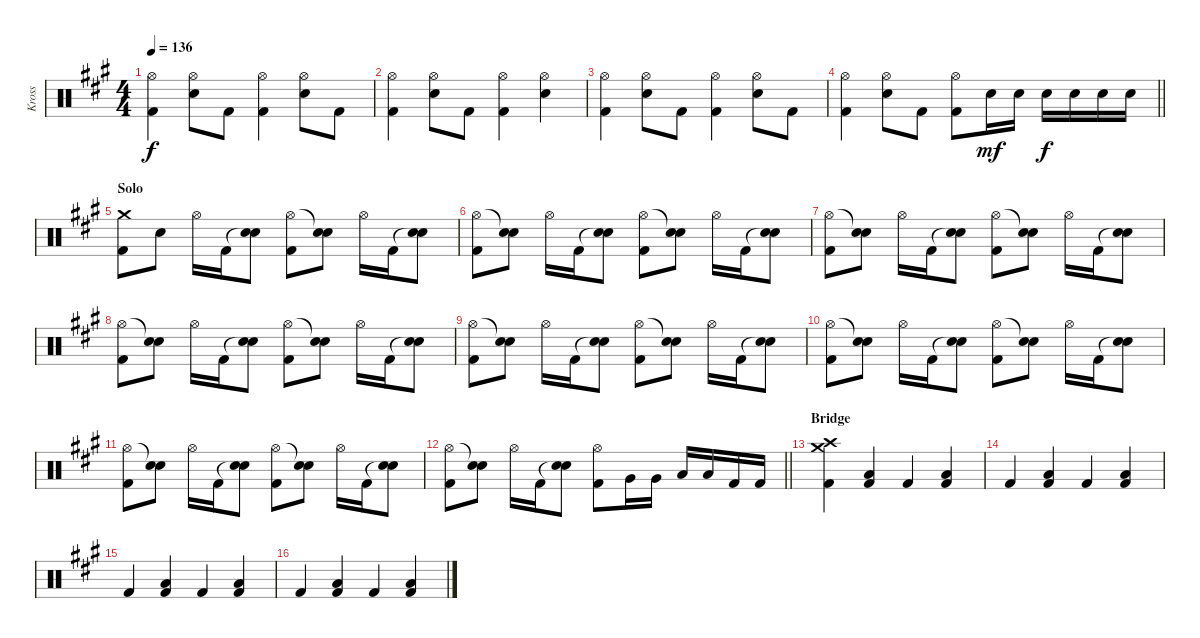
\track ("Kross" "Kross") {instrument percussion}
\staff {score}
\articulation defaults
\ts (4 4)
\tempo 136
\clef neutral
\ks a
("Hi-Hat (open)" "Kick (hit) 2").4{dy f} ("Hi-Hat (open)" "Electric Snare (hit)").8 "Kick (hit) 2".8 ("Hi-Hat (open)" "Kick (hit) 2").4 ("Hi-Hat (open)" "Electric Snare (hit)").8 "Kick (hit) 2".8 |
("Hi-Hat (open)" "Kick (hit) 2").4 ("Hi-Hat (open)" "Electric Snare (hit)").8 "Kick (hit) 2".8 ("Hi-Hat (open)" "Kick (hit) 2").4 ("Hi-Hat (open)" "Electric Snare (hit)").4 |
("Hi-Hat (open)" "Kick (hit) 2").4 ("Hi-Hat (open)" "Electric Snare (hit)").8 "Kick (hit) 2".8 ("Hi-Hat (open)" "Kick (hit) 2").4 ("Hi-Hat (open)" "Electric Snare (hit)").8 "Kick (hit) 2".8 |
\barLineRight lightlight
("Hi-Hat (open)" "Kick (hit) 2").4 ("Hi-Hat (open)" "Electric Snare (hit)").8 "Kick (hit) 2".8 ("Hi-Hat (open)" "Kick (hit) 2").8 "Electric Snare (hit)".16{dy mf} "Electric Snare (hit)".16 "Electric Snare (hit)".16{dy f} "Electric Snare (hit)".16 "Electric Snare (hit)".16 "Electric Snare (hit)".16 |
\section ("" "Solo")
("Crash medium (hit)" "Kick (hit) 2").8 "Electric Snare (hit)".8 "Hi-Hat (open)".16 "Kick (hit) 2".16 ("Snare (hit)"{t} "Electric Snare (hit)").8 ("Hi-Hat (open)" "Kick (hit) 2").8 ("Snare (hit)"{t} "Electric Snare (hit)").8 "Hi-Hat (open)".16 "Kick (hit) 2".16 ("Snare (hit)"{t} "Electric Snare (hit)").8 |
("Hi-Hat (open)" "Kick (hit) 2").8 ("Snare (hit)"{t} "Electric Snare (hit)").8 "Hi-Hat (open)".16 "Kick (hit) 2".16 ("Snare (hit)"{t} "Electric Snare (hit)").8 ("Hi-Hat (open)" "Kick (hit) 2").8 ("Snare (hit)"{t} "Electric Snare (hit)").8 "Hi-Hat (open)".16 "Kick (hit) 2".16 ("Snare (hit)"{t} "Electric Snare (hit)").8 |
("Hi-Hat (open)" "Kick (hit) 2").8 ("Snare (hit)"{t} "Electric Snare (hit)").8 "Hi-Hat (open)".16 "Kick (hit) 2".16 ("Snare (hit)"{t} "Electric Snare (hit)").8 ("Hi-Hat (open)" "Kick (hit) 2").8 ("Snare (hit)"{t} "Electric Snare (hit)").8 "Hi-Hat (open)".16 "Kick (hit) 2".16 ("Snare (hit)"{t} "Electric Snare (hit)").8 |
("Hi-Hat (open)" "Kick (hit) 2").8 ("Snare (hit)"{t} "Electric Snare (hit)").8 "Hi-Hat (open)".16 "Kick (hit) 2".16 ("Snare (hit)"{t} "Electric Snare (hit)").8 ("Hi-Hat (open)" "Kick (hit) 2").8 ("Snare (hit)"{t} "Electric Snare (hit)").8 "Hi-Hat (open)".16 "Kick (hit) 2".16 ("Snare (hit)"{t} "Electric Snare (hit)").8 |
("Hi-Hat (open)" "Kick (hit) 2").8 ("Snare (hit)"{t} "Electric Snare (hit)").8 "Hi-Hat (open)".16 "Kick (hit) 2".16 ("Snare (hit)"{t} "Electric Snare (hit)").8 ("Hi-Hat (open)" "Kick (hit) 2").8 ("Snare (hit)"{t} "Electric Snare (hit)").8 "Hi-Hat (open)".16 "Kick (hit) 2".16 ("Snare (hit)"{t} "Electric Snare (hit)").8 |
("Hi-Hat (open)" "Kick (hit) 2").8 ("Snare (hit)"{t} "Electric Snare (hit)").8 "Hi-Hat (open)".16 "Kick (hit) 2".16 ("Snare (hit)"{t} "Electric Snare (hit)").8 ("Hi-Hat (open)" "Kick (hit) 2").8 ("Snare (hit)"{t} "Electric Snare (hit)").8 "Hi-Hat (open)".16 "Kick (hit) 2".16 ("Snare (hit)"{t} "Electric Snare (hit)").8 |
("Hi-Hat (open)" "Kick (hit) 2").8 ("Snare (hit)"{t} "Electric Snare (hit)").8 "Hi-Hat (open)".16 "Kick (hit) 2".16 ("Snare (hit)"{t} "Electric Snare (hit)").8 ("Hi-Hat (open)" "Kick (hit) 2").8 ("Snare (hit)"{t} "Electric Snare (hit)").8 "Hi-Hat (open)".16 "Kick (hit) 2".16 ("Snare (hit)"{t} "Electric Snare (hit)").8 |
\barLineRight lightlight
("Hi-Hat (open)" "Kick (hit) 2").8 ("Snare (hit)"{t} "Electric Snare (hit)").8 "Hi-Hat (open)".16 "Kick (hit) 2".16 ("Snare (hit)"{t} "Electric Snare (hit)").8 ("Hi-Hat (open)" "Kick (hit) 2").8 "Very Low Tom (hit)".16 "Very Low Tom (hit)".16 "Low Floor Tom (hit)".16 "Low Floor Tom (hit)".16 "Kick (hit) 2".16 "Kick (hit) 2".16 |
\section ("" "Bridge")
("Crash medium (hit)" "Crash high (hit)" "Kick (hit) 2").4 ("Low Floor Tom (hit)" "Kick (hit) 2").4 "Kick (hit) 2".4 ("Low Floor Tom (hit)" "Kick (hit) 2").4 |
"Kick (hit) 2".4 ("Low Floor Tom (hit)" "Kick (hit) 2").4 "Kick (hit) 2".4 ("Low Floor Tom (hit)" "Kick (hit) 2").4 |
"Kick (hit) 2".4 ("Low Floor Tom (hit)" "Kick (hit) 2").4 "Kick (hit) 2".4 ("Low Floor Tom (hit)" "Kick (hit) 2").4 |
"Kick (hit) 2".4 ("Low Floor Tom (hit)" "Kick (hit) 2").4 "Kick (hit) 2".4 ("Low Floor Tom (hit)" "Kick (hit) 2").4
